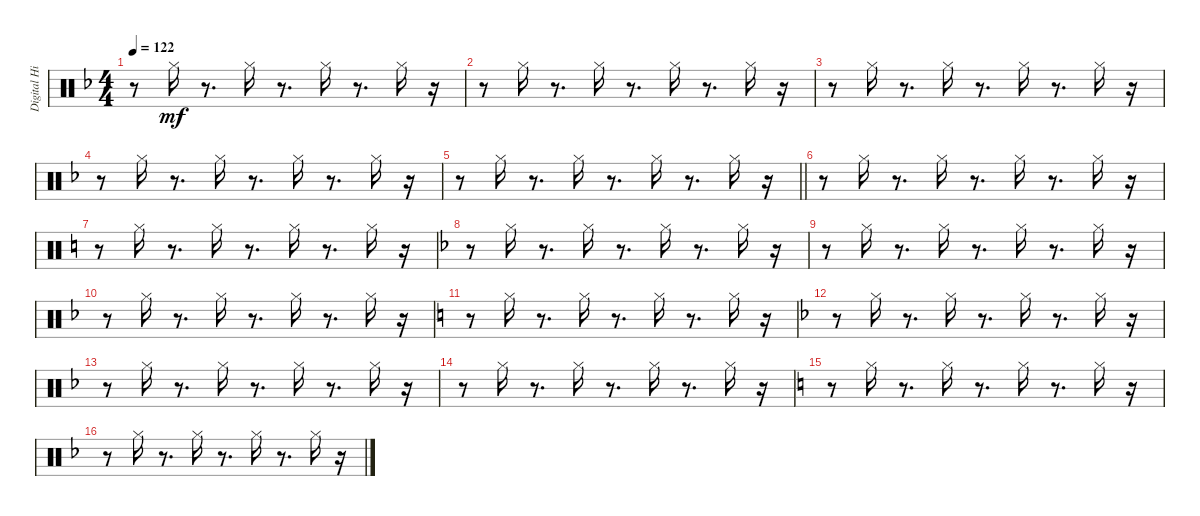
\track ("Digital Hi-Hat (Stephen Morris)" "Digital Hi") {instrument percussion}
\staff {score}
\articulation defaults
\ts (4 4)
\tempo 122
\clef neutral
\ks f
r.8{dy mf} "Hi-Hat (closed)".16 r.8{d} "Hi-Hat (closed)".16 r.8{d} "Hi-Hat (closed)".16 r.8{d} "Hi-Hat (closed)".16 r.16 |
r.8 "Hi-Hat (closed)".16 r.8{d} "Hi-Hat (closed)".16 r.8{d} "Hi-Hat (closed)".16 r.8{d} "Hi-Hat (closed)".16 r.16 |
r.8 "Hi-Hat (closed)".16 r.8{d} "Hi-Hat (closed)".16 r.8{d} "Hi-Hat (closed)".16 r.8{d} "Hi-Hat (closed)".16 r.16 |
r.8 "Hi-Hat (closed)".16 r.8{d} "Hi-Hat (closed)".16 r.8{d} "Hi-Hat (closed)".16 r.8{d} "Hi-Hat (closed)".16 r.16 |
\barLineRight lightlight
r.8 "Hi-Hat (closed)".16 r.8{d} "Hi-Hat (closed)".16 r.8{d} "Hi-Hat (closed)".16 r.8{d} "Hi-Hat (closed)".16 r.16 |
r.8 "Hi-Hat (closed)".16 r.8{d} "Hi-Hat (closed)".16 r.8{d} "Hi-Hat (closed)".16 r.8{d} "Hi-Hat (closed)".16 r.16 |
\ks c
r.8 "Hi-Hat (closed)".16 r.8{d} "Hi-Hat (closed)".16 r.8{d} "Hi-Hat (closed)".16 r.8{d} "Hi-Hat (closed)".16 r.16 |
\ks f
r.8 "Hi-Hat (closed)".16 r.8{d} "Hi-Hat (closed)".16 r.8{d} "Hi-Hat (closed)".16 r.8{d} "Hi-Hat (closed)".16 r.16 |
r.8 "Hi-Hat (closed)".16 r.8{d} "Hi-Hat (closed)".16 r.8{d} "Hi-Hat (closed)".16 r.8{d} "Hi-Hat (closed)".16 r.16 |
r.8 "Hi-Hat (closed)".16 r.8{d} "Hi-Hat (closed)".16 r.8{d} "Hi-Hat (closed)".16 r.8{d} "Hi-Hat (closed)".16 r.16 |
\ks c
r.8 "Hi-Hat (closed)".16 r.8{d} "Hi-Hat (closed)".16 r.8{d} "Hi-Hat (closed)".16 r.8{d} "Hi-Hat (closed)".16 r.16 |
\ks f
r.8 "Hi-Hat (closed)".16 r.8{d} "Hi-Hat (closed)".16 r.8{d} "Hi-Hat (closed)".16 r.8{d} "Hi-Hat (closed)".16 r.16 |
r.8 "Hi-Hat (closed)".16 r.8{d} "Hi-Hat (closed)".16 r.8{d} "Hi-Hat (closed)".16 r.8{d} "Hi-Hat (closed)".16 r.16 |
r.8 "Hi-Hat (closed)".16 r.8{d} "Hi-Hat (closed)".16 r.8{d} "Hi-Hat (closed)".16 r.8{d} "Hi-Hat (closed)".16 r.16 |
\ks c
r.8 "Hi-Hat (closed)".16 r.8{d} "Hi-Hat (closed)".16 r.8{d} "Hi-Hat (closed)".16 r.8{d} "Hi-Hat (closed)".16 r.16 |
\ks f
r.8 "Hi-Hat (closed)".16 r.8{d} "Hi-Hat (closed)".16 r.8{d} "Hi-Hat (closed)".16 r.8{d} "Hi-Hat (closed)".16 r.16
